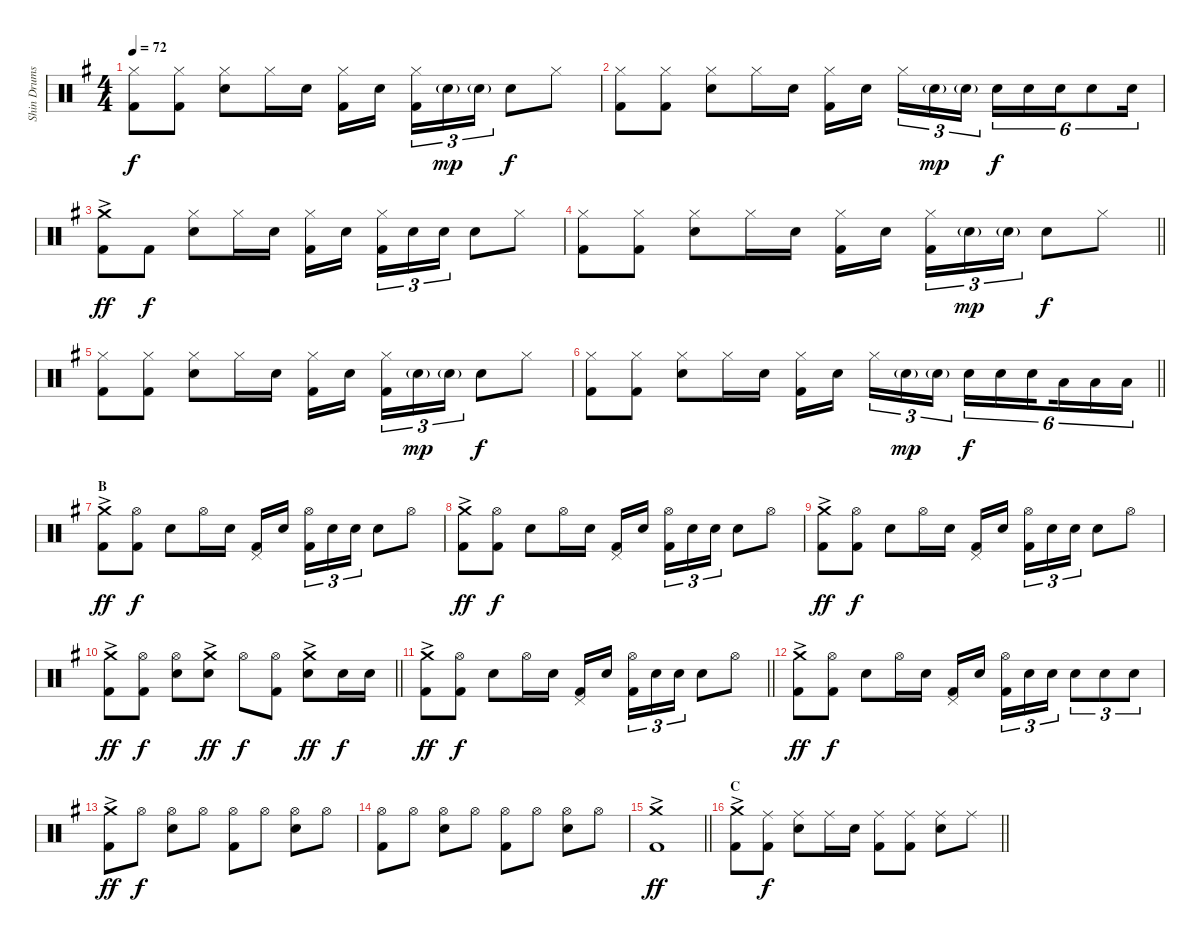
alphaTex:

\track ("Shin Drums" "Shin Drums") {instrument percussion}
\staff {score}
\articulation defaults
\ts (4 4)
\tempo 72
\clef neutral
\ks g
("Hi-Hat (closed)" "Kick (hit) 2").8{dy f} ("Hi-Hat (closed)" "Kick (hit) 2").8 ("Hi-Hat (closed)" "Snare (hit) 2").8 "Hi-Hat (closed)".16 "Snare (hit) 2".16 ("Hi-Hat (closed)" "Kick (hit) 2").16 "Snare (hit) 2".16{beam splitsecondary} ("Hi-Hat (closed)" "Kick (hit) 2").16{tu (3 2)} "Snare (hit) 2"{g}.16{tu (3 2) dy mp} "Snare (hit) 2"{g}.16{tu (3 2)} "Snare (hit) 2".8{dy f} "Hi-Hat (closed)".8 |
("Hi-Hat (closed)" "Kick (hit) 2").8 ("Hi-Hat (closed)" "Kick (hit) 2").8 ("Hi-Hat (closed)" "Snare (hit) 2").8 "Hi-Hat (closed)".16 "Snare (hit) 2".16 ("Hi-Hat (closed)" "Kick (hit) 2").16 "Snare (hit) 2".16{beam splitsecondary} "Hi-Hat (closed)".16{tu (3 2)} "Snare (hit) 2"{g}.16{tu (3 2) dy mp} "Snare (hit) 2"{g}.16{tu (3 2)} "Snare (hit) 2".16{tu (6 4) dy f} "Snare (hit) 2".16{tu (6 4)} "Snare (hit) 2".16{tu (6 4)} "Snare (hit) 2".8{tu (6 4)} "Snare (hit) 2".16{tu (6 4)} |
("Crash medium (hit)"{ac} "Kick (hit) 2"{ac}).8{dy ff} "Kick (hit) 2".8{dy f} ("Hi-Hat (closed)" "Snare (hit) 2").8 "Hi-Hat (closed)".16 "Snare (hit) 2".16 ("Hi-Hat (closed)" "Kick (hit) 2").16 "Snare (hit) 2".16{beam splitsecondary} ("Hi-Hat (closed)" "Kick (hit) 2").16{tu (3 2)} "Snare (hit) 2".16{tu (3 2)} "Snare (hit) 2".16{tu (3 2)} "Snare (hit) 2".8 "Hi-Hat (closed)".8 |
\barLineRight lightlight
("Hi-Hat (closed)" "Kick (hit) 2").8 ("Hi-Hat (closed)" "Kick (hit) 2").8 ("Hi-Hat (closed)" "Snare (hit) 2").8 "Hi-Hat (closed)".16 "Snare (hit) 2".16 ("Hi-Hat (closed)" "Kick (hit) 2").16 "Snare (hit) 2".16{beam splitsecondary} ("Hi-Hat (closed)" "Kick (hit) 2").16{tu (3 2)} "Snare (hit) 2"{g}.16{tu (3 2) dy mp} "Snare (hit) 2"{g}.16{tu (3 2)} "Snare (hit) 2".8{dy f} "Hi-Hat (closed)".8 |
\section ("" "")
("Hi-Hat (closed)" "Kick (hit) 2").8 ("Hi-Hat (closed)" "Kick (hit) 2").8 ("Hi-Hat (closed)" "Snare (hit) 2").8 "Hi-Hat (closed)".16 "Snare (hit) 2".16 ("Hi-Hat (closed)" "Kick (hit) 2").16 "Snare (hit) 2".16{beam splitsecondary} ("Hi-Hat (closed)" "Kick (hit) 2").16{tu (3 2)} "Snare (hit) 2"{g}.16{tu (3 2) dy mp} "Snare (hit) 2"{g}.16{tu (3 2)} "Snare (hit) 2".8{dy f} "Hi-Hat (closed)".8 |
\barLineRight lightlight
("Hi-Hat (closed)" "Kick (hit) 2").8 ("Hi-Hat (closed)" "Kick (hit) 2").8 ("Hi-Hat (closed)" "Snare (hit) 2").8 "Hi-Hat (closed)".16 "Snare (hit) 2".16 ("Hi-Hat (closed)" "Kick (hit) 2").16 "Snare (hit) 2".16{beam splitsecondary} "Hi-Hat (closed)".16{tu (3 2)} "Snare (hit) 2"{g}.16{tu (3 2) dy mp} "Snare (hit) 2"{g}.16{tu (3 2)} "Snare (hit) 2".16{tu (6 4) dy f} "Snare (hit) 2".16{tu (6 4)} "Snare (hit) 2".16{tu (6 4) beam splitsecondary} "Low Tom (hit)".16{tu (6 4)} "Low Tom (hit)".16{tu (6 4)} "Low Tom (hit)".16{tu (6 4)} |
\section ("" "B")
("Crash medium (hit)"{ac} "Kick (hit) 2"{ac}).8{dy ff} ("Hi-Hat (open)" "Kick (hit) 2").8{dy f} "Snare (hit) 2".8 "Hi-Hat (open)".16 "Snare (hit) 2".16 ("Pedal Hi-Hat (hit)" "Kick (hit) 2").16 "Snare (hit) 2".16{beam splitsecondary} ("Hi-Hat (open)" "Kick (hit) 2").16{tu (3 2)} "Snare (hit) 2".16{tu (3 2)} "Snare (hit) 2".16{tu (3 2)} "Snare (hit) 2".8 "Hi-Hat (open)".8 |
("Crash medium (hit)"{ac} "Kick (hit) 2"{ac}).8{dy ff} ("Hi-Hat (open)" "Kick (hit) 2").8{dy f} "Snare (hit) 2".8 "Hi-Hat (open)".16 "Snare (hit) 2".16 ("Pedal Hi-Hat (hit)" "Kick (hit) 2").16 "Snare (hit) 2".16{beam splitsecondary} ("Hi-Hat (open)" "Kick (hit) 2").16{tu (3 2)} "Snare (hit) 2".16{tu (3 2)} "Snare (hit) 2".16{tu (3 2)} "Snare (hit) 2".8 "Hi-Hat (open)".8 |
("Crash medium (hit)"{ac} "Kick (hit) 2"{ac}).8{dy ff} ("Hi-Hat (open)" "Kick (hit) 2").8{dy f} "Snare (hit) 2".8 "Hi-Hat (open)".16 "Snare (hit) 2".16 ("Pedal Hi-Hat (hit)" "Kick (hit) 2").16 "Snare (hit) 2".16{beam splitsecondary} ("Hi-Hat (open)" "Kick (hit) 2").16{tu (3 2)} "Snare (hit) 2".16{tu (3 2)} "Snare (hit) 2".16{tu (3 2)} "Snare (hit) 2".8 "Hi-Hat (open)".8 |
\barLineRight lightlight
("Crash medium (hit)"{ac} "Kick (hit) 2"{ac}).8{dy ff} ("Hi-Hat (open)" "Kick (hit) 2").8{dy f} ("Hi-Hat (open)" "Snare (hit) 2").8 ("Crash medium (hit)"{ac} "Snare (hit) 2").8{dy ff} "Hi-Hat (open)".8{dy f} ("Hi-Hat (open)" "Kick (hit) 2").8 ("Crash medium (hit)"{ac} "Snare (hit) 2").8{dy ff} "Snare (hit) 2".16{dy f} "Snare (hit) 2".16 |
\section ("" "")
\barLineRight lightlight
("Crash medium (hit)"{ac} "Kick (hit) 2"{ac}).8{dy ff} ("Hi-Hat (open)" "Kick (hit) 2").8{dy f} "Snare (hit) 2".8 "Hi-Hat (open)".16 "Snare (hit) 2".16 ("Pedal Hi-Hat (hit)" "Kick (hit) 2").16 "Snare (hit) 2".16{beam splitsecondary} ("Hi-Hat (open)" "Kick (hit) 2").16{tu (3 2)} "Snare (hit) 2".16{tu (3 2)} "Snare (hit) 2".16{tu (3 2)} "Snare (hit) 2".8 "Hi-Hat (open)".8 |
\section ("" "")
("Crash medium (hit)"{ac} "Kick (hit) 2"{ac}).8{dy ff} ("Hi-Hat (open)" "Kick (hit) 2").8{dy f} "Snare (hit) 2".8 "Hi-Hat (open)".16 "Snare (hit) 2".16 ("Pedal Hi-Hat (hit)" "Kick (hit) 2").16 "Snare (hit) 2".16{beam splitsecondary} ("Hi-Hat (open)" "Kick (hit) 2").16{tu (3 2)} "Snare (hit) 2".16{tu (3 2)} "Snare (hit) 2".16{tu (3 2)} "Snare (hit) 2".8{tu (3 2)} "Snare (hit) 2".8{tu (3 2)} "Snare (hit) 2".8{tu (3 2)} |
("Crash medium (hit)"{ac} "Kick (hit) 2"{ac}).8{dy ff} "Hi-Hat (open)".8{dy f} ("Hi-Hat (open)" "Snare (hit) 2").8 "Hi-Hat (open)".8 ("Hi-Hat (open)" "Kick (hit) 2").8 "Hi-Hat (open)".8 ("Hi-Hat (open)" "Snare (hit) 2").8 "Hi-Hat (open)".8 |
("Hi-Hat (open)" "Kick (hit) 2").8 "Hi-Hat (open)".8 ("Hi-Hat (open)" "Snare (hit) 2").8 "Hi-Hat (open)".8 ("Hi-Hat (open)" "Kick (hit) 2").8 "Hi-Hat (open)".8 ("Hi-Hat (open)" "Snare (hit) 2").8 "Hi-Hat (open)".8 |
\barLineRight lightlight
("Crash medium (hit)"{ac} "Kick (hit) 2"{ac}).1{dy ff} |
\section ("" "C")
\barLineRight lightlight
("Crash medium (hit)"{ac} "Kick (hit) 2"{ac}).8 ("Ride (middle)" "Kick (hit) 2").8{dy f} ("Ride (middle)" "Snare (hit) 2").8 "Ride (middle)".16 "Snare (hit) 2".16 ("Ride (middle)" "Kick (hit) 2").8 ("Ride (middle)" "Kick (hit) 2").8 ("Ride (middle)" "Snare (hit) 2").8 "Ride (middle)".8
